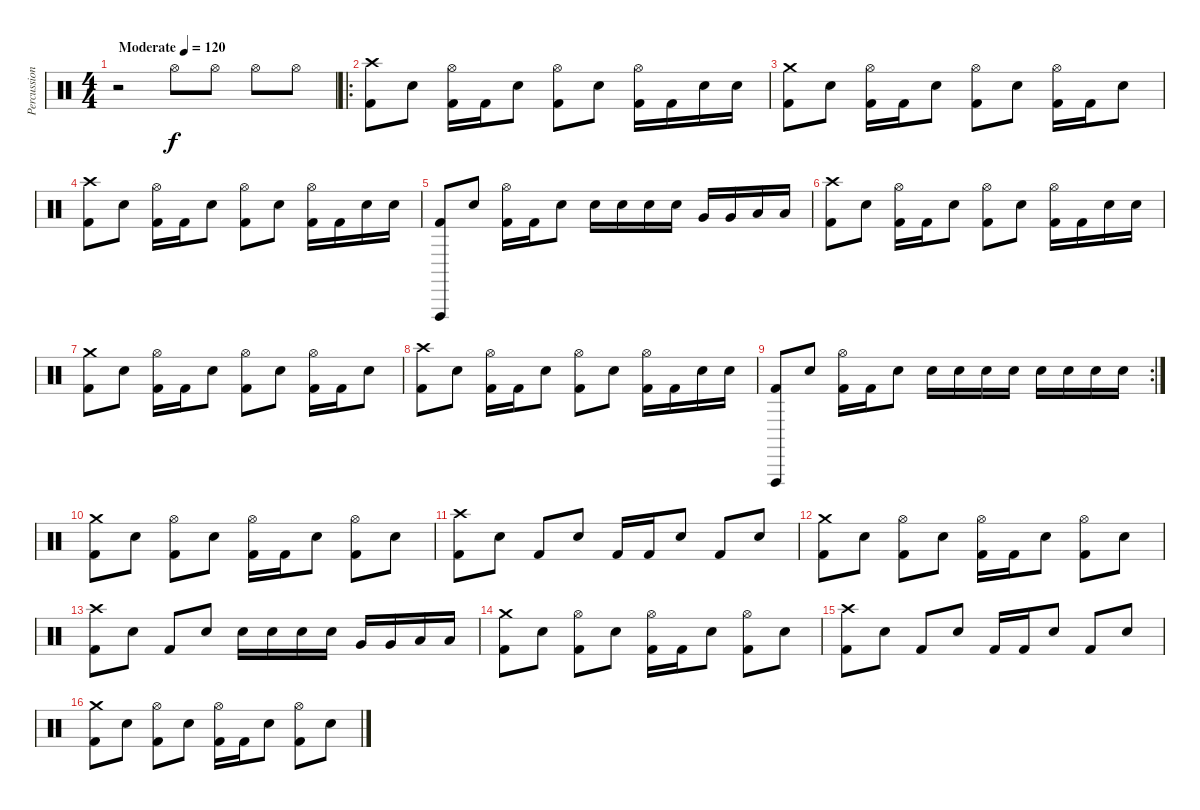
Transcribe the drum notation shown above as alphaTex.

\track ("Percussion" "Percussion") {instrument percussion}
\staff {score}
\articulation defaults
\ts (4 4)
\tempo (120 "Moderate")
\clef neutral
\ks c
r.2{dy f} "Hi-Hat (open)".8 "Hi-Hat (open)".8 "Hi-Hat (open)".8 "Hi-Hat (open)".8 |
\ro
("Crash high (hit)" "Kick (hit) 2").8 "Snare (hit) 2".8 ("Hi-Hat (open)" "Kick (hit) 2").16 "Kick (hit) 2".16 "Snare (hit) 2".8 ("Hi-Hat (open)" "Kick (hit) 2").8 "Snare (hit) 2".8 ("Hi-Hat (open)" "Kick (hit) 2").16 "Kick (hit) 2".16 "Snare (hit) 2".16 "Snare (hit) 2".16 |
("Crash medium (hit)" "Kick (hit) 2").8 "Snare (hit) 2".8 ("Hi-Hat (open)" "Kick (hit) 2").16 "Kick (hit) 2".16 "Snare (hit) 2".8 ("Hi-Hat (open)" "Kick (hit) 2").8 "Snare (hit) 2".8 ("Hi-Hat (open)" "Kick (hit) 2").16 "Kick (hit) 2".16 "Snare (hit) 2".8 |
("Crash high (hit)" "Kick (hit) 2").8 "Snare (hit) 2".8 ("Hi-Hat (open)" "Kick (hit) 2").16 "Kick (hit) 2".16 "Snare (hit) 2".8 ("Hi-Hat (open)" "Kick (hit) 2").8 "Snare (hit) 2".8 ("Hi-Hat (open)" "Kick (hit) 2").16 "Kick (hit) 2".16 "Snare (hit) 2".16 "Snare (hit) 2".16 |
("Vibraslap (hit)" "Kick (hit) 2").8 "Snare (hit) 2".8 ("Hi-Hat (open)" "Kick (hit) 2").16 "Kick (hit) 2".16 "Snare (hit) 2".8 "Snare (hit) 2".16 "Snare (hit) 2".16 "Electric Snare (hit)".16 "Electric Snare (hit)".16 "Very Low Tom (hit)".16 "Very Low Tom (hit)".16 "Low Tom (hit)".16 "Low Tom (hit)".16 |
("Crash high (hit)" "Kick (hit) 2").8 "Snare (hit) 2".8 ("Hi-Hat (open)" "Kick (hit) 2").16 "Kick (hit) 2".16 "Snare (hit) 2".8 ("Hi-Hat (open)" "Kick (hit) 2").8 "Snare (hit) 2".8 ("Hi-Hat (open)" "Kick (hit) 2").16 "Kick (hit) 2".16 "Snare (hit) 2".16 "Snare (hit) 2".16 |
("Crash medium (hit)" "Kick (hit) 2").8 "Snare (hit) 2".8 ("Hi-Hat (open)" "Kick (hit) 2").16 "Kick (hit) 2".16 "Snare (hit) 2".8 ("Hi-Hat (open)" "Kick (hit) 2").8 "Snare (hit) 2".8 ("Hi-Hat (open)" "Kick (hit) 2").16 "Kick (hit) 2".16 "Snare (hit) 2".8 |
("Crash high (hit)" "Kick (hit) 2").8 "Snare (hit) 2".8 ("Hi-Hat (open)" "Kick (hit) 2").16 "Kick (hit) 2".16 "Snare (hit) 2".8 ("Hi-Hat (open)" "Kick (hit) 2").8 "Snare (hit) 2".8 ("Hi-Hat (open)" "Kick (hit) 2").16 "Kick (hit) 2".16 "Snare (hit) 2".16 "Snare (hit) 2".16 |
\rc 2
("Vibraslap (hit)" "Kick (hit) 2").8 "Snare (hit) 2".8 ("Hi-Hat (open)" "Kick (hit) 2").16 "Kick (hit) 2".16 "Snare (hit) 2".8 "Snare (hit) 2".16 "Snare (hit) 2".16 "Electric Snare (hit)".16 "Electric Snare (hit)".16 "Snare (hit) 2".16 "Snare (hit) 2".16 "Electric Snare (hit)".16 "Electric Snare (hit)".16 |
("Crash medium (hit)" "Kick (hit) 2").8 "Snare (hit) 2".8 ("Hi-Hat (open)" "Kick (hit) 2").8 "Snare (hit) 2".8 ("Hi-Hat (open)" "Kick (hit) 2").16 "Kick (hit) 2".16 "Snare (hit) 2".8 ("Hi-Hat (open)" "Kick (hit) 2").8 "Snare (hit) 2".8 |
("Crash high (hit)" "Kick (hit) 2").8 "Snare (hit) 2".8 "Kick (hit) 2".8 "Snare (hit) 2".8 "Kick (hit) 2".16 "Kick (hit) 2".16 "Snare (hit) 2".8 "Kick (hit) 2".8 "Snare (hit) 2".8 |
("Crash medium (hit)" "Kick (hit) 2").8 "Snare (hit) 2".8 ("Hi-Hat (open)" "Kick (hit) 2").8 "Snare (hit) 2".8 ("Hi-Hat (open)" "Kick (hit) 2").16 "Kick (hit) 2".16 "Snare (hit) 2".8 ("Hi-Hat (open)" "Kick (hit) 2").8 "Snare (hit) 2".8 |
("Crash high (hit)" "Kick (hit) 2").8 "Snare (hit) 2".8 "Kick (hit) 2".8 "Snare (hit) 2".8 "Snare (hit) 2".16 "Snare (hit) 2".16 "Electric Snare (hit)".16 "Electric Snare (hit)".16 "Very Low Tom (hit)".16 "Very Low Tom (hit)".16 "Low Tom (hit)".16 "Low Tom (hit)".16 |
("Crash medium (hit)" "Kick (hit) 2").8 "Snare (hit) 2".8 ("Hi-Hat (open)" "Kick (hit) 2").8 "Snare (hit) 2".8 ("Hi-Hat (open)" "Kick (hit) 2").16 "Kick (hit) 2".16 "Snare (hit) 2".8 ("Hi-Hat (open)" "Kick (hit) 2").8 "Snare (hit) 2".8 |
("Crash high (hit)" "Kick (hit) 2").8 "Snare (hit) 2".8 "Kick (hit) 2".8 "Snare (hit) 2".8 "Kick (hit) 2".16 "Kick (hit) 2".16 "Snare (hit) 2".8 "Kick (hit) 2".8 "Snare (hit) 2".8 |
("Crash medium (hit)" "Kick (hit) 2").8 "Snare (hit) 2".8 ("Hi-Hat (open)" "Kick (hit) 2").8 "Snare (hit) 2".8 ("Hi-Hat (open)" "Kick (hit) 2").16 "Kick (hit) 2".16 "Snare (hit) 2".8 ("Hi-Hat (open)" "Kick (hit) 2").8 "Snare (hit) 2".8
